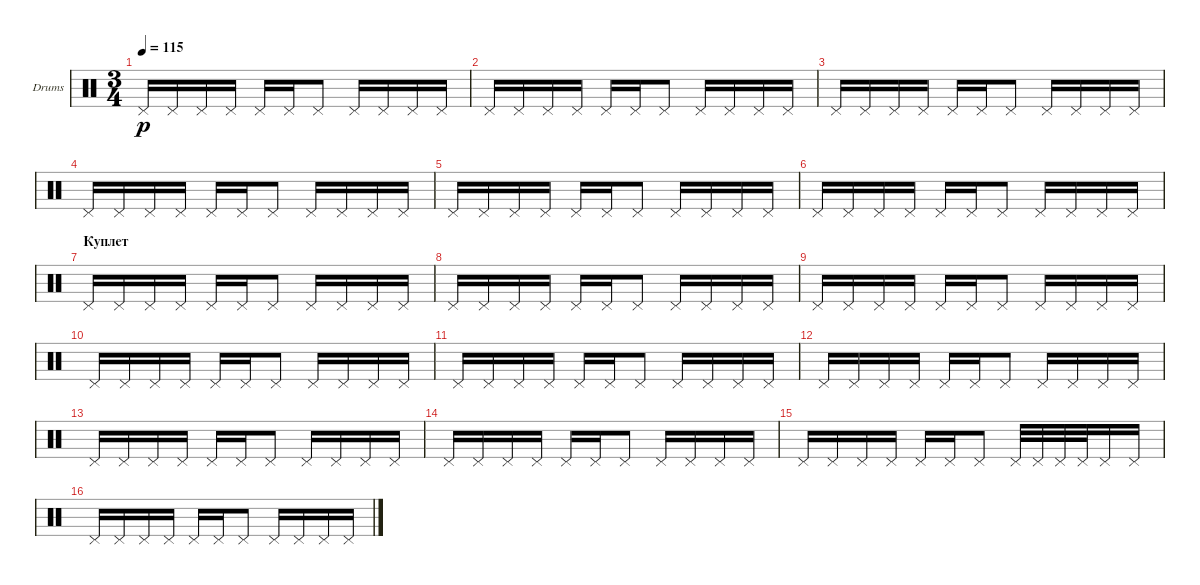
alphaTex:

\defaultSystemsLayout 4
\bracketExtendMode groupsimilarinstruments
\firstSystemTrackNameOrientation horizontal
\otherSystemsTrackNameOrientation horizontal
\track ("Е. Кулаков" "Drums") {instrument percussion}
\staff {score}
\articulation defaults
\ts (3 4)
\tempo 115
\clef neutral
\ks c "Pedal Hi-Hat (hit)".16{dy p} "Pedal Hi-Hat (hit)".16 "Pedal Hi-Hat (hit)".16 "Pedal Hi-Hat (hit)".16 "Pedal Hi-Hat (hit)".16 "Pedal Hi-Hat (hit)".16 "Pedal Hi-Hat (hit)".8 "Pedal Hi-Hat (hit)".16 "Pedal Hi-Hat (hit)".16 "Pedal Hi-Hat (hit)".16 "Pedal Hi-Hat (hit)".16
|
"Pedal Hi-Hat (hit)".16 "Pedal Hi-Hat (hit)".16 "Pedal Hi-Hat (hit)".16 "Pedal Hi-Hat (hit)".16 "Pedal Hi-Hat (hit)".16 "Pedal Hi-Hat (hit)".16 "Pedal Hi-Hat (hit)".8 "Pedal Hi-Hat (hit)".16 "Pedal Hi-Hat (hit)".16 "Pedal Hi-Hat (hit)".16 "Pedal Hi-Hat (hit)".16 |
"Pedal Hi-Hat (hit)".16 "Pedal Hi-Hat (hit)".16 "Pedal Hi-Hat (hit)".16 "Pedal Hi-Hat (hit)".16 "Pedal Hi-Hat (hit)".16 "Pedal Hi-Hat (hit)".16 "Pedal Hi-Hat (hit)".8 "Pedal Hi-Hat (hit)".16 "Pedal Hi-Hat (hit)".16 "Pedal Hi-Hat (hit)".16 "Pedal Hi-Hat (hit)".16 |
"Pedal Hi-Hat (hit)".16 "Pedal Hi-Hat (hit)".16 "Pedal Hi-Hat (hit)".16 "Pedal Hi-Hat (hit)".16 "Pedal Hi-Hat (hit)".16 "Pedal Hi-Hat (hit)".16 "Pedal Hi-Hat (hit)".8 "Pedal Hi-Hat (hit)".16 "Pedal Hi-Hat (hit)".16 "Pedal Hi-Hat (hit)".16 "Pedal Hi-Hat (hit)".16 |
"Pedal Hi-Hat (hit)".16 "Pedal Hi-Hat (hit)".16 "Pedal Hi-Hat (hit)".16 "Pedal Hi-Hat (hit)".16 "Pedal Hi-Hat (hit)".16 "Pedal Hi-Hat (hit)".16 "Pedal Hi-Hat (hit)".8 "Pedal Hi-Hat (hit)".16 "Pedal Hi-Hat (hit)".16 "Pedal Hi-Hat (hit)".16 "Pedal Hi-Hat (hit)".16 |
"Pedal Hi-Hat (hit)".16 "Pedal Hi-Hat (hit)".16 "Pedal Hi-Hat (hit)".16 "Pedal Hi-Hat (hit)".16 "Pedal Hi-Hat (hit)".16 "Pedal Hi-Hat (hit)".16 "Pedal Hi-Hat (hit)".8 "Pedal Hi-Hat (hit)".16 "Pedal Hi-Hat (hit)".16 "Pedal Hi-Hat (hit)".16 "Pedal Hi-Hat (hit)".16 |
\section ("" "Куплет")
"Pedal Hi-Hat (hit)".16 "Pedal Hi-Hat (hit)".16 "Pedal Hi-Hat (hit)".16 "Pedal Hi-Hat (hit)".16 "Pedal Hi-Hat (hit)".16 "Pedal Hi-Hat (hit)".16 "Pedal Hi-Hat (hit)".8 "Pedal Hi-Hat (hit)".16 "Pedal Hi-Hat (hit)".16 "Pedal Hi-Hat (hit)".16 "Pedal Hi-Hat (hit)".16 |
"Pedal Hi-Hat (hit)".16 "Pedal Hi-Hat (hit)".16 "Pedal Hi-Hat (hit)".16 "Pedal Hi-Hat (hit)".16 "Pedal Hi-Hat (hit)".16 "Pedal Hi-Hat (hit)".16 "Pedal Hi-Hat (hit)".8 "Pedal Hi-Hat (hit)".16 "Pedal Hi-Hat (hit)".16 "Pedal Hi-Hat (hit)".16 "Pedal Hi-Hat (hit)".16 |
"Pedal Hi-Hat (hit)".16 "Pedal Hi-Hat (hit)".16 "Pedal Hi-Hat (hit)".16 "Pedal Hi-Hat (hit)".16 "Pedal Hi-Hat (hit)".16 "Pedal Hi-Hat (hit)".16 "Pedal Hi-Hat (hit)".8 "Pedal Hi-Hat (hit)".16 "Pedal Hi-Hat (hit)".16 "Pedal Hi-Hat (hit)".16 "Pedal Hi-Hat (hit)".16 |
"Pedal Hi-Hat (hit)".16 "Pedal Hi-Hat (hit)".16 "Pedal Hi-Hat (hit)".16 "Pedal Hi-Hat (hit)".16 "Pedal Hi-Hat (hit)".16 "Pedal Hi-Hat (hit)".16 "Pedal Hi-Hat (hit)".8 "Pedal Hi-Hat (hit)".16 "Pedal Hi-Hat (hit)".16 "Pedal Hi-Hat (hit)".16 "Pedal Hi-Hat (hit)".16 |
"Pedal Hi-Hat (hit)".16 "Pedal Hi-Hat (hit)".16 "Pedal Hi-Hat (hit)".16 "Pedal Hi-Hat (hit)".16 "Pedal Hi-Hat (hit)".16 "Pedal Hi-Hat (hit)".16 "Pedal Hi-Hat (hit)".8 "Pedal Hi-Hat (hit)".16 "Pedal Hi-Hat (hit)".16 "Pedal Hi-Hat (hit)".16 "Pedal Hi-Hat (hit)".16 |
"Pedal Hi-Hat (hit)".16 "Pedal Hi-Hat (hit)".16 "Pedal Hi-Hat (hit)".16 "Pedal Hi-Hat (hit)".16 "Pedal Hi-Hat (hit)".16 "Pedal Hi-Hat (hit)".16 "Pedal Hi-Hat (hit)".8 "Pedal Hi-Hat (hit)".16 "Pedal Hi-Hat (hit)".16 "Pedal Hi-Hat (hit)".16 "Pedal Hi-Hat (hit)".16 |
"Pedal Hi-Hat (hit)".16 "Pedal Hi-Hat (hit)".16 "Pedal Hi-Hat (hit)".16 "Pedal Hi-Hat (hit)".16 "Pedal Hi-Hat (hit)".16 "Pedal Hi-Hat (hit)".16 "Pedal Hi-Hat (hit)".8 "Pedal Hi-Hat (hit)".16 "Pedal Hi-Hat (hit)".16 "Pedal Hi-Hat (hit)".16 "Pedal Hi-Hat (hit)".16 |
"Pedal Hi-Hat (hit)".16 "Pedal Hi-Hat (hit)".16 "Pedal Hi-Hat (hit)".16 "Pedal Hi-Hat (hit)".16 "Pedal Hi-Hat (hit)".16 "Pedal Hi-Hat (hit)".16 "Pedal Hi-Hat (hit)".8 "Pedal Hi-Hat (hit)".16 "Pedal Hi-Hat (hit)".16 "Pedal Hi-Hat (hit)".16 "Pedal Hi-Hat (hit)".16 |
"Pedal Hi-Hat (hit)".16 "Pedal Hi-Hat (hit)".16 "Pedal Hi-Hat (hit)".16 "Pedal Hi-Hat (hit)".16 "Pedal Hi-Hat (hit)".16 "Pedal Hi-Hat (hit)".16 "Pedal Hi-Hat (hit)".8 "Pedal Hi-Hat (hit)".32 "Pedal Hi-Hat (hit)".32 "Pedal Hi-Hat (hit)".32 "Pedal Hi-Hat (hit)".32 "Pedal Hi-Hat (hit)".16 "Pedal Hi-Hat (hit)".16 |
"Pedal Hi-Hat (hit)".16 "Pedal Hi-Hat (hit)".16 "Pedal Hi-Hat (hit)".16 "Pedal Hi-Hat (hit)".16 "Pedal Hi-Hat (hit)".16 "Pedal Hi-Hat (hit)".16 "Pedal Hi-Hat (hit)".8 "Pedal Hi-Hat (hit)".16 "Pedal Hi-Hat (hit)".16 "Pedal Hi-Hat (hit)".16 "Pedal Hi-Hat (hit)".16
